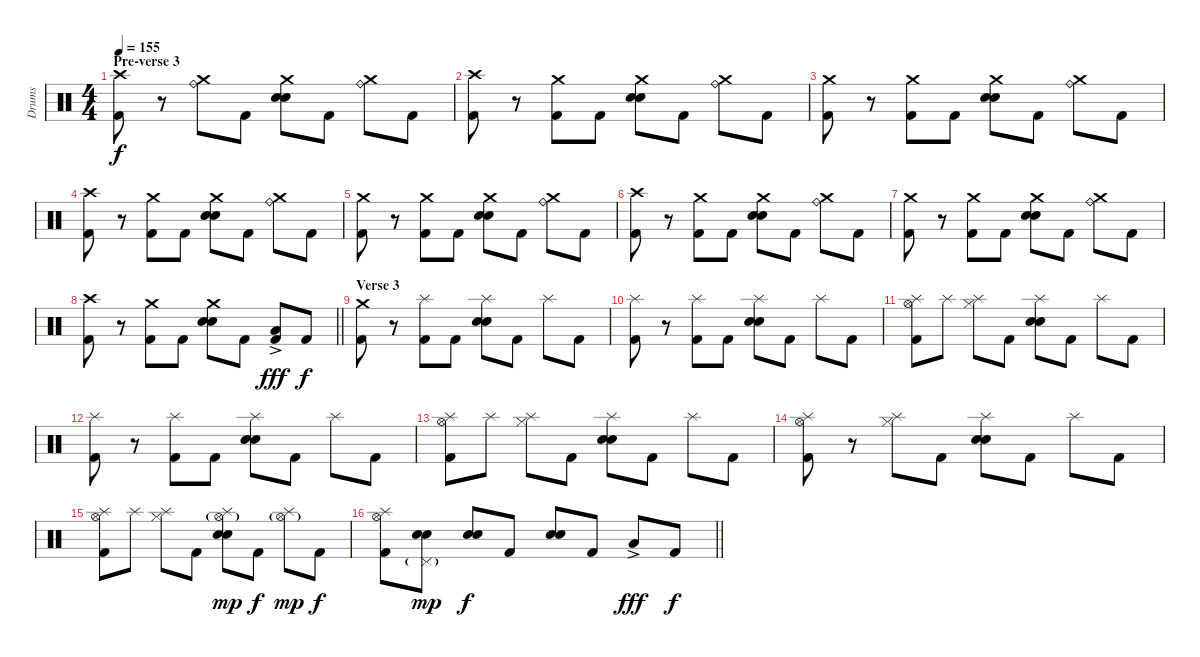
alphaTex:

\track ("Drums" "Drums") {instrument percussion}
\staff {score}
\articulation defaults
\ts (4 4)
\section ("" "Pre-verse 3")
\tempo 155
\clef neutral
\ks c
("Crash high (hit)" "Kick (hit) 2").8{dy f} r.8 ("Crash medium (hit)" "Ride (bell)").8 "Kick (hit) 2".8 ("Crash medium (hit)" "Snare (hit) 2" "Electric Snare (hit)").8 "Kick (hit) 2".8 ("Crash medium (hit)" "Ride (bell)").8 "Kick (hit) 2".8 |
("Crash high (hit)" "Kick (hit) 2").8 r.8 ("Crash medium (hit)" "Kick (hit) 2").8 "Kick (hit) 2".8 ("Crash medium (hit)" "Snare (hit) 2" "Electric Snare (hit)").8 "Kick (hit) 2".8 ("Crash medium (hit)" "Ride (bell)").8 "Kick (hit) 2".8 |
("Crash medium (hit)" "Kick (hit) 2").8 r.8 ("Crash medium (hit)" "Kick (hit) 2").8 "Kick (hit) 2".8 ("Crash medium (hit)" "Snare (hit) 2" "Electric Snare (hit)").8 "Kick (hit) 2".8 ("Crash medium (hit)" "Ride (bell)").8 "Kick (hit) 2".8 |
("Crash high (hit)" "Kick (hit) 2").8 r.8 ("Crash medium (hit)" "Kick (hit) 2").8 "Kick (hit) 2".8 ("Crash medium (hit)" "Snare (hit) 2" "Electric Snare (hit)").8 "Kick (hit) 2".8 ("Crash medium (hit)" "Ride (bell)").8 "Kick (hit) 2".8 |
("Crash medium (hit)" "Kick (hit) 2").8 r.8 ("Crash medium (hit)" "Kick (hit) 2").8 "Kick (hit) 2".8 ("Crash medium (hit)" "Snare (hit) 2" "Electric Snare (hit)").8 "Kick (hit) 2".8 ("Crash medium (hit)" "Ride (bell)").8 "Kick (hit) 2".8 |
("Crash high (hit)" "Kick (hit) 2").8 r.8 ("Crash medium (hit)" "Kick (hit) 2").8 "Kick (hit) 2".8 ("Crash medium (hit)" "Snare (hit) 2" "Electric Snare (hit)").8 "Kick (hit) 2".8 ("Crash medium (hit)" "Ride (bell)").8 "Kick (hit) 2".8 |
("Crash medium (hit)" "Kick (hit) 2").8 r.8 ("Crash medium (hit)" "Kick (hit) 2").8 "Kick (hit) 2".8 ("Crash medium (hit)" "Snare (hit) 2" "Electric Snare (hit)").8 "Kick (hit) 2".8 ("Crash medium (hit)" "Ride (bell)").8 "Kick (hit) 2".8 |
\barLineRight lightlight
("Crash high (hit)" "Kick (hit) 2").8 r.8 ("Crash medium (hit)" "Kick (hit) 2").8 "Kick (hit) 2".8 ("Crash medium (hit)" "Snare (hit) 2" "Electric Snare (hit)").8 "Kick (hit) 2".8 ("Low Floor Tom (hit)"{ac} "Kick (hit) 2").8{dy fff} "Kick (hit) 2".8{dy f} |
\section ("" "Verse 3")
("Crash medium (hit)" "Kick (hit) 2").8 r.8 ("Splash (hit)" "Kick (hit) 2").8 "Kick (hit) 2".8 ("Splash (hit)" "Snare (hit) 2" "Electric Snare (hit)").8 "Kick (hit) 2".8 "Splash (hit)".8 "Kick (hit) 2".8 |
("Splash (hit)" "Kick (hit) 2").8 r.8 ("Splash (hit)" "Kick (hit) 2").8 "Kick (hit) 2".8 ("Splash (hit)" "Snare (hit) 2" "Electric Snare (hit)").8 "Kick (hit) 2".8 "Splash (hit)".8 "Kick (hit) 2".8 |
("Splash (hit)" "Hi-Hat (open)" "Kick (hit) 2").8 "Splash (hit)".8 ("Splash (hit)" "Hi-Hat (closed)").8 "Kick (hit) 2".8 ("Splash (hit)" "Snare (hit) 2" "Electric Snare (hit)").8 "Kick (hit) 2".8 "Splash (hit)".8 "Kick (hit) 2".8 |
("Splash (hit)" "Kick (hit) 2").8 r.8 ("Splash (hit)" "Kick (hit) 2").8 "Kick (hit) 2".8 ("Splash (hit)" "Snare (hit) 2" "Electric Snare (hit)").8 "Kick (hit) 2".8 "Splash (hit)".8 "Kick (hit) 2".8 |
("Splash (hit)" "Hi-Hat (open)" "Kick (hit) 2").8 "Splash (hit)".8 ("Splash (hit)" "Hi-Hat (closed)").8 "Kick (hit) 2".8 ("Splash (hit)" "Snare (hit) 2" "Electric Snare (hit)").8 "Kick (hit) 2".8 "Splash (hit)".8 "Kick (hit) 2".8 |
("Splash (hit)" "Hi-Hat (open)" "Kick (hit) 2").8 r.8 ("Splash (hit)" "Hi-Hat (closed)").8 "Kick (hit) 2".8 ("Splash (hit)" "Snare (hit) 2" "Electric Snare (hit)").8 "Kick (hit) 2".8 "Splash (hit)".8 "Kick (hit) 2".8 |
("Splash (hit)" "Hi-Hat (open)" "Kick (hit) 2").8 "Splash (hit)".8 ("Splash (hit)" "Hi-Hat (closed)").8 "Kick (hit) 2".8 ("Splash (hit)" "Hi-Hat (open)"{g} "Snare (hit) 2" "Electric Snare (hit)").8{dy mp} "Kick (hit) 2".8{dy f} ("Splash (hit)" "Hi-Hat (open)"{g}).8{dy mp} "Kick (hit) 2".8{dy f} |
\barLineRight lightlight
("Splash (hit)" "Hi-Hat (open)" "Kick (hit) 2").8 ("Pedal Hi-Hat (hit)"{g} "Snare (hit) 2" "Electric Snare (hit)").8{dy mp} ("Snare (hit) 2" "Electric Snare (hit)").8{dy f} "Kick (hit) 2".8 ("Snare (hit) 2" "Electric Snare (hit)").8 "Kick (hit) 2".8 "Low Floor Tom (hit)"{ac}.8{dy fff} "Kick (hit) 2".8{dy f}
